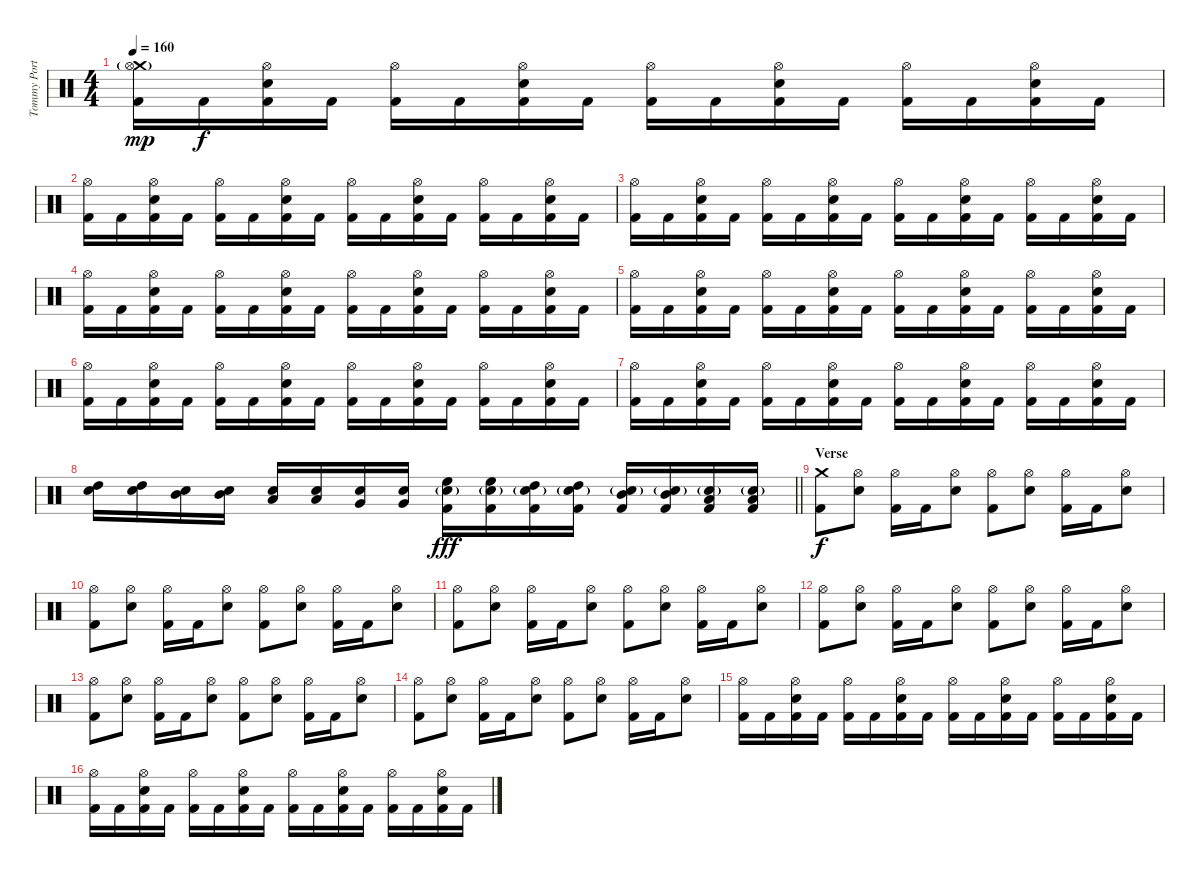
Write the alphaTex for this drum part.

\track ("Tommy Portino" "Tommy Port") {instrument percussion}
\staff {score}
\articulation defaults
\ts (4 4)
\tempo 160
\clef neutral
\ks c
("Crash medium (hit)" "Hi-Hat (open)"{g} "Kick (hit) 2").16{dy mp} "Kick (hit) 2".16{dy f} ("Hi-Hat (open)" "Snare (hit) 2" "Kick (hit) 2").16 "Kick (hit) 2".16 ("Hi-Hat (open)" "Kick (hit) 2").16 "Kick (hit) 2".16 ("Hi-Hat (open)" "Snare (hit) 2" "Kick (hit) 2").16 "Kick (hit) 2".16 ("Hi-Hat (open)" "Kick (hit) 2").16 "Kick (hit) 2".16 ("Hi-Hat (open)" "Snare (hit) 2" "Kick (hit) 2").16 "Kick (hit) 2".16 ("Hi-Hat (open)" "Kick (hit) 2").16 "Kick (hit) 2".16 ("Hi-Hat (open)" "Snare (hit) 2" "Kick (hit) 2").16 "Kick (hit) 2".16 |
("Hi-Hat (open)" "Kick (hit) 2").16 "Kick (hit) 2".16 ("Hi-Hat (open)" "Snare (hit) 2" "Kick (hit) 2").16 "Kick (hit) 2".16 ("Hi-Hat (open)" "Kick (hit) 2").16 "Kick (hit) 2".16 ("Hi-Hat (open)" "Snare (hit) 2" "Kick (hit) 2").16 "Kick (hit) 2".16 ("Hi-Hat (open)" "Kick (hit) 2").16 "Kick (hit) 2".16 ("Hi-Hat (open)" "Snare (hit) 2" "Kick (hit) 2").16 "Kick (hit) 2".16 ("Hi-Hat (open)" "Kick (hit) 2").16 "Kick (hit) 2".16 ("Hi-Hat (open)" "Snare (hit) 2" "Kick (hit) 2").16 "Kick (hit) 2".16 |
("Hi-Hat (open)" "Kick (hit) 2").16 "Kick (hit) 2".16 ("Hi-Hat (open)" "Snare (hit) 2" "Kick (hit) 2").16 "Kick (hit) 2".16 ("Hi-Hat (open)" "Kick (hit) 2").16 "Kick (hit) 2".16 ("Hi-Hat (open)" "Snare (hit) 2" "Kick (hit) 2").16 "Kick (hit) 2".16 ("Hi-Hat (open)" "Kick (hit) 2").16 "Kick (hit) 2".16 ("Hi-Hat (open)" "Snare (hit) 2" "Kick (hit) 2").16 "Kick (hit) 2".16 ("Hi-Hat (open)" "Kick (hit) 2").16 "Kick (hit) 2".16 ("Hi-Hat (open)" "Snare (hit) 2" "Kick (hit) 2").16 "Kick (hit) 2".16 |
("Hi-Hat (open)" "Kick (hit) 2").16 "Kick (hit) 2".16 ("Hi-Hat (open)" "Snare (hit) 2" "Kick (hit) 2").16 "Kick (hit) 2".16 ("Hi-Hat (open)" "Kick (hit) 2").16 "Kick (hit) 2".16 ("Hi-Hat (open)" "Snare (hit) 2" "Kick (hit) 2").16 "Kick (hit) 2".16 ("Hi-Hat (open)" "Kick (hit) 2").16 "Kick (hit) 2".16 ("Hi-Hat (open)" "Snare (hit) 2" "Kick (hit) 2").16 "Kick (hit) 2".16 ("Hi-Hat (open)" "Kick (hit) 2").16 "Kick (hit) 2".16 ("Hi-Hat (open)" "Snare (hit) 2" "Kick (hit) 2").16 "Kick (hit) 2".16 |
("Hi-Hat (open)" "Kick (hit) 2").16 "Kick (hit) 2".16 ("Hi-Hat (open)" "Snare (hit) 2" "Kick (hit) 2").16 "Kick (hit) 2".16 ("Hi-Hat (open)" "Kick (hit) 2").16 "Kick (hit) 2".16 ("Hi-Hat (open)" "Snare (hit) 2" "Kick (hit) 2").16 "Kick (hit) 2".16 ("Hi-Hat (open)" "Kick (hit) 2").16 "Kick (hit) 2".16 ("Hi-Hat (open)" "Snare (hit) 2" "Kick (hit) 2").16 "Kick (hit) 2".16 ("Hi-Hat (open)" "Kick (hit) 2").16 "Kick (hit) 2".16 ("Hi-Hat (open)" "Snare (hit) 2" "Kick (hit) 2").16 "Kick (hit) 2".16 |
("Hi-Hat (open)" "Kick (hit) 2").16 "Kick (hit) 2".16 ("Hi-Hat (open)" "Snare (hit) 2" "Kick (hit) 2").16 "Kick (hit) 2".16 ("Hi-Hat (open)" "Kick (hit) 2").16 "Kick (hit) 2".16 ("Hi-Hat (open)" "Snare (hit) 2" "Kick (hit) 2").16 "Kick (hit) 2".16 ("Hi-Hat (open)" "Kick (hit) 2").16 "Kick (hit) 2".16 ("Hi-Hat (open)" "Snare (hit) 2" "Kick (hit) 2").16 "Kick (hit) 2".16 ("Hi-Hat (open)" "Kick (hit) 2").16 "Kick (hit) 2".16 ("Hi-Hat (open)" "Snare (hit) 2" "Kick (hit) 2").16 "Kick (hit) 2".16 |
("Hi-Hat (open)" "Kick (hit) 2").16 "Kick (hit) 2".16 ("Hi-Hat (open)" "Snare (hit) 2" "Kick (hit) 2").16 "Kick (hit) 2".16 ("Hi-Hat (open)" "Kick (hit) 2").16 "Kick (hit) 2".16 ("Hi-Hat (open)" "Snare (hit) 2" "Kick (hit) 2").16 "Kick (hit) 2".16 ("Hi-Hat (open)" "Kick (hit) 2").16 "Kick (hit) 2".16 ("Hi-Hat (open)" "Snare (hit) 2" "Kick (hit) 2").16 "Kick (hit) 2".16 ("Hi-Hat (open)" "Kick (hit) 2").16 "Kick (hit) 2".16 ("Hi-Hat (open)" "Snare (hit) 2" "Kick (hit) 2").16 "Kick (hit) 2".16 |
\barLineRight lightlight
("High Tom (hit)" "Snare (hit) 2").16 ("High Tom (hit)" "Snare (hit) 2").16 ("Mid Tom (hit)" "Snare (hit) 2").16 ("Mid Tom (hit)" "Snare (hit) 2").16 ("Low Tom (hit)" "Snare (hit) 2").16 ("Low Tom (hit)" "Snare (hit) 2").16 ("Very Low Tom (hit)" "Snare (hit) 2").16 ("Very Low Tom (hit)" "Snare (hit) 2").16 ("High Floor Tom (hit)" "Snare (hit) 2"{g} "Kick (hit) 2").16{dy fff} ("High Floor Tom (hit)" "Snare (hit) 2"{g} "Kick (hit) 2").16 ("High Tom (hit)" "Snare (hit) 2"{g} "Kick (hit) 2").16 ("High Tom (hit)" "Snare (hit) 2"{g} "Kick (hit) 2").16 ("Mid Tom (hit)" "Snare (hit) 2"{g} "Kick (hit) 2").16 ("Mid Tom (hit)" "Snare (hit) 2"{g} "Kick (hit) 2").16 ("Low Tom (hit)" "Snare (hit) 2"{g} "Kick (hit) 2").16 ("Low Tom (hit)" "Snare (hit) 2"{g} "Kick (hit) 2").16 |
\section ("" "Verse")
("Crash medium (hit)" "Kick (hit) 2").8{dy f} ("Hi-Hat (open)" "Snare (hit) 2").8 ("Hi-Hat (open)" "Kick (hit) 2").16 "Kick (hit) 2".16 ("Hi-Hat (open)" "Snare (hit) 2").8 ("Hi-Hat (open)" "Kick (hit) 2").8 ("Hi-Hat (open)" "Snare (hit) 2").8 ("Hi-Hat (open)" "Kick (hit) 2").16 "Kick (hit) 2".16 ("Hi-Hat (open)" "Snare (hit) 2").8 |
("Hi-Hat (open)" "Kick (hit) 2").8 ("Hi-Hat (open)" "Snare (hit) 2").8 ("Hi-Hat (open)" "Kick (hit) 2").16 "Kick (hit) 2".16 ("Hi-Hat (open)" "Snare (hit) 2").8 ("Hi-Hat (open)" "Kick (hit) 2").8 ("Hi-Hat (open)" "Snare (hit) 2").8 ("Hi-Hat (open)" "Kick (hit) 2").16 "Kick (hit) 2".16 ("Hi-Hat (open)" "Snare (hit) 2").8 |
("Hi-Hat (open)" "Kick (hit) 2").8 ("Hi-Hat (open)" "Snare (hit) 2").8 ("Hi-Hat (open)" "Kick (hit) 2").16 "Kick (hit) 2".16 ("Hi-Hat (open)" "Snare (hit) 2").8 ("Hi-Hat (open)" "Kick (hit) 2").8 ("Hi-Hat (open)" "Snare (hit) 2").8 ("Hi-Hat (open)" "Kick (hit) 2").16 "Kick (hit) 2".16 ("Hi-Hat (open)" "Snare (hit) 2").8 |
("Hi-Hat (open)" "Kick (hit) 2").8 ("Hi-Hat (open)" "Snare (hit) 2").8 ("Hi-Hat (open)" "Kick (hit) 2").16 "Kick (hit) 2".16 ("Hi-Hat (open)" "Snare (hit) 2").8 ("Hi-Hat (open)" "Kick (hit) 2").8 ("Hi-Hat (open)" "Snare (hit) 2").8 ("Hi-Hat (open)" "Kick (hit) 2").16 "Kick (hit) 2".16 ("Hi-Hat (open)" "Snare (hit) 2").8 |
("Hi-Hat (open)" "Kick (hit) 2").8 ("Hi-Hat (open)" "Snare (hit) 2").8 ("Hi-Hat (open)" "Kick (hit) 2").16 "Kick (hit) 2".16 ("Hi-Hat (open)" "Snare (hit) 2").8 ("Hi-Hat (open)" "Kick (hit) 2").8 ("Hi-Hat (open)" "Snare (hit) 2").8 ("Hi-Hat (open)" "Kick (hit) 2").16 "Kick (hit) 2".16 ("Hi-Hat (open)" "Snare (hit) 2").8 |
("Hi-Hat (open)" "Kick (hit) 2").8 ("Hi-Hat (open)" "Snare (hit) 2").8 ("Hi-Hat (open)" "Kick (hit) 2").16 "Kick (hit) 2".16 ("Hi-Hat (open)" "Snare (hit) 2").8 ("Hi-Hat (open)" "Kick (hit) 2").8 ("Hi-Hat (open)" "Snare (hit) 2").8 ("Hi-Hat (open)" "Kick (hit) 2").16 "Kick (hit) 2".16 ("Hi-Hat (open)" "Snare (hit) 2").8 |
("Hi-Hat (open)" "Kick (hit) 2").16 "Kick (hit) 2".16 ("Hi-Hat (open)" "Snare (hit) 2" "Kick (hit) 2").16 "Kick (hit) 2".16 ("Hi-Hat (open)" "Kick (hit) 2").16 "Kick (hit) 2".16 ("Hi-Hat (open)" "Snare (hit) 2" "Kick (hit) 2").16 "Kick (hit) 2".16 ("Hi-Hat (open)" "Kick (hit) 2").16 "Kick (hit) 2".16 ("Hi-Hat (open)" "Snare (hit) 2" "Kick (hit) 2").16 "Kick (hit) 2".16 ("Hi-Hat (open)" "Kick (hit) 2").16 "Kick (hit) 2".16 ("Hi-Hat (open)" "Snare (hit) 2" "Kick (hit) 2").16 "Kick (hit) 2".16 |
("Hi-Hat (open)" "Kick (hit) 2").16 "Kick (hit) 2".16 ("Hi-Hat (open)" "Snare (hit) 2" "Kick (hit) 2").16 "Kick (hit) 2".16 ("Hi-Hat (open)" "Kick (hit) 2").16 "Kick (hit) 2".16 ("Hi-Hat (open)" "Snare (hit) 2" "Kick (hit) 2").16 "Kick (hit) 2".16 ("Hi-Hat (open)" "Kick (hit) 2").16 "Kick (hit) 2".16 ("Hi-Hat (open)" "Snare (hit) 2" "Kick (hit) 2").16 "Kick (hit) 2".16 ("Hi-Hat (open)" "Kick (hit) 2").16 "Kick (hit) 2".16 ("Hi-Hat (open)" "Snare (hit) 2" "Kick (hit) 2").16 "Kick (hit) 2".16
